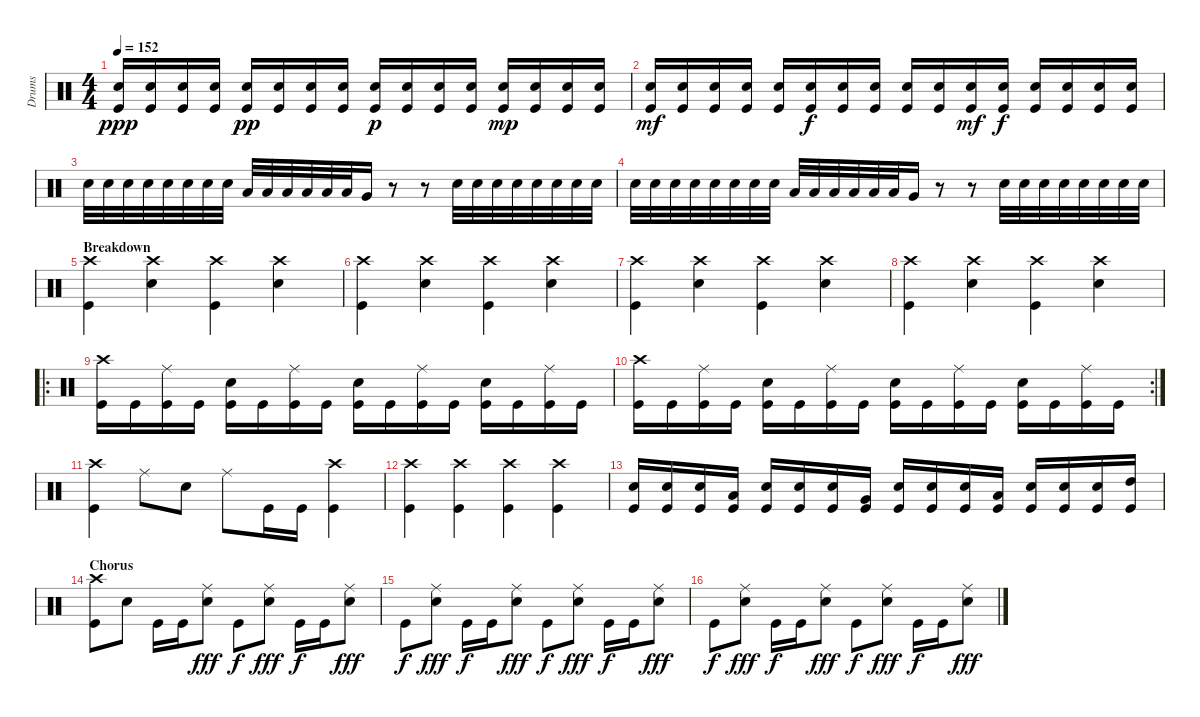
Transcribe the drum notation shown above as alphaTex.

\track ("Drums" "Drums") {instrument percussion}
\staff {score}
\articulation defaults
\ts (4 4)
\tempo 152
\clef neutral
\ks c
("Snare (hit) 2" "Kick (hit)").16{dy ppp} ("Snare (hit) 2" "Kick (hit)").16 ("Snare (hit) 2" "Kick (hit)").16 ("Snare (hit) 2" "Kick (hit)").16 ("Snare (hit) 2" "Kick (hit)").16{dy pp} ("Snare (hit) 2" "Kick (hit)").16 ("Snare (hit) 2" "Kick (hit)").16 ("Snare (hit) 2" "Kick (hit)").16 ("Snare (hit) 2" "Kick (hit)").16{dy p} ("Snare (hit) 2" "Kick (hit)").16 ("Snare (hit) 2" "Kick (hit)").16 ("Snare (hit) 2" "Kick (hit)").16 ("Snare (hit) 2" "Kick (hit)").16{dy mp} ("Snare (hit) 2" "Kick (hit)").16 ("Snare (hit) 2" "Kick (hit)").16 ("Snare (hit) 2" "Kick (hit)").16 |
("Snare (hit) 2" "Kick (hit)").16{dy mf} ("Snare (hit) 2" "Kick (hit)").16 ("Snare (hit) 2" "Kick (hit)").16 ("Snare (hit) 2" "Kick (hit)").16 ("Snare (hit) 2" "Kick (hit)").16 ("Snare (hit) 2" "Kick (hit)").16{dy f} ("Snare (hit) 2" "Kick (hit)").16 ("Snare (hit) 2" "Kick (hit)").16 ("Snare (hit) 2" "Kick (hit)").16 ("Snare (hit) 2" "Kick (hit)").16 ("Snare (hit) 2" "Kick (hit)").16{dy mf} ("Snare (hit) 2" "Kick (hit)").16{dy f} ("Snare (hit) 2" "Kick (hit)").16 ("Snare (hit) 2" "Kick (hit)").16 ("Snare (hit) 2" "Kick (hit)").16 ("Snare (hit) 2" "Kick (hit)").16 |
"Snare (hit) 2".32 "Snare (hit) 2".32 "Snare (hit) 2".32 "Snare (hit) 2".32 "Snare (hit) 2".32 "Snare (hit) 2".32 "Snare (hit) 2".32 "Snare (hit) 2".32 "Low Tom (hit)".32 "Low Tom (hit)".32 "Low Tom (hit)".32 "Low Tom (hit)".32 "Low Tom (hit)".32 "Low Tom (hit)".32 "Very Low Tom (hit)".16 r.8 r.8 "Snare (hit) 2".32 "Snare (hit) 2".32 "Snare (hit) 2".32 "Snare (hit) 2".32 "Snare (hit) 2".32 "Snare (hit) 2".32 "Snare (hit) 2".32 "Snare (hit) 2".32 |
"Snare (hit) 2".32 "Snare (hit) 2".32 "Snare (hit) 2".32 "Snare (hit) 2".32 "Snare (hit) 2".32 "Snare (hit) 2".32 "Snare (hit) 2".32 "Snare (hit) 2".32 "Low Tom (hit)".32 "Low Tom (hit)".32 "Low Tom (hit)".32 "Low Tom (hit)".32 "Low Tom (hit)".32 "Low Tom (hit)".32 "Very Low Tom (hit)".16 r.8 r.8 "Snare (hit) 2".32 "Snare (hit) 2".32 "Snare (hit) 2".32 "Snare (hit) 2".32 "Snare (hit) 2".32 "Snare (hit) 2".32 "Snare (hit) 2".32 "Snare (hit) 2".32 |
\section ("" "Breakdown")
("Crash high (hit)" "Kick (hit)").4 ("Crash high (hit)" "Snare (hit) 2").4 ("Crash high (hit)" "Kick (hit)").4 ("Crash high (hit)" "Snare (hit) 2").4 |
("Crash high (hit)" "Kick (hit)").4 ("Crash high (hit)" "Snare (hit) 2").4 ("Crash high (hit)" "Kick (hit)").4 ("Crash high (hit)" "Snare (hit) 2").4 |
("Crash high (hit)" "Kick (hit)").4 ("Crash high (hit)" "Snare (hit) 2").4 ("Crash high (hit)" "Kick (hit)").4 ("Crash high (hit)" "Snare (hit) 2").4 |
("Crash high (hit)" "Kick (hit)").4 ("Crash high (hit)" "Snare (hit) 2").4 ("Crash high (hit)" "Kick (hit)").4 ("Crash high (hit)" "Snare (hit) 2").4 |
\ro
("Crash high (hit)" "Kick (hit)").16 "Kick (hit)".16 ("Ride (middle)" "Kick (hit)").16 "Kick (hit)".16 ("Snare (hit) 2" "Kick (hit)").16 "Kick (hit)".16 ("Ride (middle)" "Kick (hit)").16 "Kick (hit)".16 ("Snare (hit) 2" "Kick (hit)").16 "Kick (hit)".16 ("Ride (middle)" "Kick (hit)").16 "Kick (hit)".16 ("Snare (hit) 2" "Kick (hit)").16 "Kick (hit)".16 ("Ride (middle)" "Kick (hit)").16 "Kick (hit)".16 |
\rc 2
("Crash high (hit)" "Kick (hit)").16 "Kick (hit)".16 ("Ride (middle)" "Kick (hit)").16 "Kick (hit)".16 ("Snare (hit) 2" "Kick (hit)").16 "Kick (hit)".16 ("Ride (middle)" "Kick (hit)").16 "Kick (hit)".16 ("Snare (hit) 2" "Kick (hit)").16 "Kick (hit)".16 ("Ride (middle)" "Kick (hit)").16 "Kick (hit)".16 ("Snare (hit) 2" "Kick (hit)").16 "Kick (hit)".16 ("Ride (middle)" "Kick (hit)").16 "Kick (hit)".16 |
("Crash high (hit)" "Kick (hit)").4 "Ride (middle)".8 "Snare (hit) 2".8 "Ride (middle)".8 "Kick (hit)".16 "Kick (hit)".16 ("Crash high (hit)" "Kick (hit)").4 |
("Crash high (hit)" "Kick (hit)").4 ("Crash high (hit)" "Kick (hit)").4 ("Crash high (hit)" "Kick (hit)").4 ("Crash high (hit)" "Kick (hit)").4 |
("Snare (hit) 2" "Kick (hit)").16 ("Snare (hit) 2" "Kick (hit)").16 ("Snare (hit) 2" "Kick (hit)").16 ("Low Floor Tom (hit)" "Kick (hit)").16 ("Snare (hit) 2" "Kick (hit)").16 ("Snare (hit) 2" "Kick (hit)").16 ("Snare (hit) 2" "Kick (hit)").16 ("Very Low Tom (hit)" "Kick (hit)").16 ("Snare (hit) 2" "Kick (hit)").16 ("Snare (hit) 2" "Kick (hit)").16 ("Snare (hit) 2" "Kick (hit)").16 ("Low Tom (hit)" "Kick (hit)").16 ("Snare (hit) 2" "Kick (hit)").16 ("Snare (hit) 2" "Kick (hit)").16 ("Snare (hit) 2" "Kick (hit)").16 ("High Tom (hit)" "Kick (hit)").16 |
\section ("" "Chorus")
("Crash high (hit)" "Kick (hit)").8 "Snare (hit) 2".8 "Kick (hit)".16 "Kick (hit)".16 ("Ride (middle)" "Snare (hit) 2").8{dy fff} "Kick (hit)".8{dy f} ("Ride (middle)" "Snare (hit) 2").8{dy fff} "Kick (hit)".16{dy f} "Kick (hit)".16 ("Ride (middle)" "Snare (hit) 2").8{dy fff} |
"Kick (hit)".8{dy f} ("Ride (middle)" "Snare (hit) 2").8{dy fff} "Kick (hit)".16{dy f} "Kick (hit)".16 ("Ride (middle)" "Snare (hit) 2").8{dy fff} "Kick (hit)".8{dy f} ("Ride (middle)" "Snare (hit) 2").8{dy fff} "Kick (hit)".16{dy f} "Kick (hit)".16 ("Ride (middle)" "Snare (hit) 2").8{dy fff} |
"Kick (hit)".8{dy f} ("Ride (middle)" "Snare (hit) 2").8{dy fff} "Kick (hit)".16{dy f} "Kick (hit)".16 ("Ride (middle)" "Snare (hit) 2").8{dy fff} "Kick (hit)".8{dy f} ("Ride (middle)" "Snare (hit) 2").8{dy fff} "Kick (hit)".16{dy f} "Kick (hit)".16 ("Ride (middle)" "Snare (hit) 2").8{dy fff}
